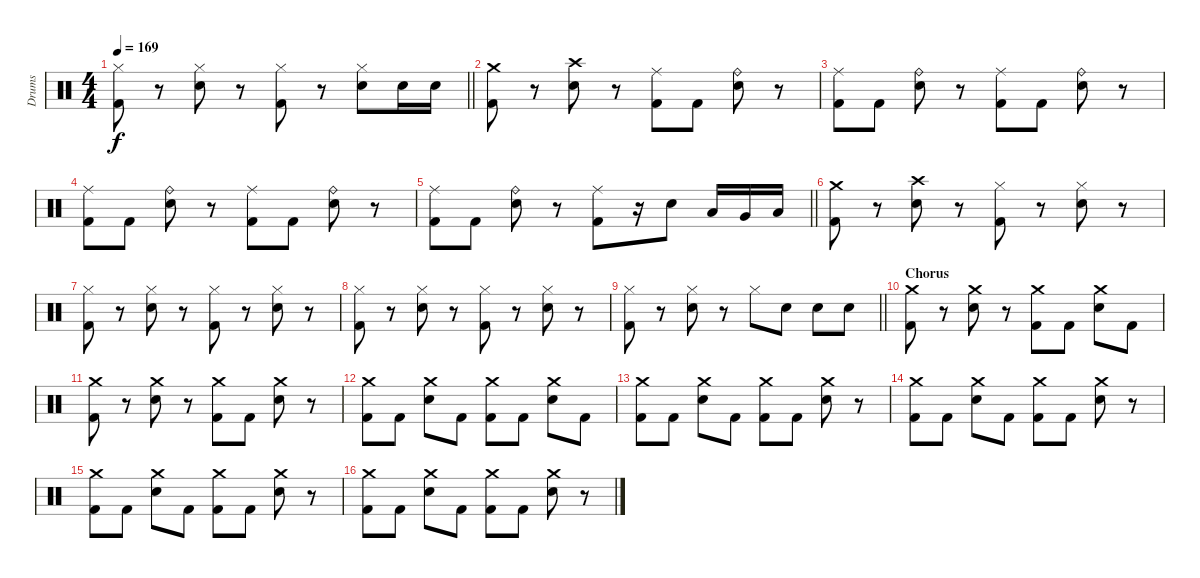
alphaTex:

\track ("Drums" "Drums") {instrument percussion}
\staff {score}
\articulation defaults
\ts (4 4)
\tempo 169
\clef neutral
\barLineRight lightlight
\ks c
("Hi-Hat (closed)" "Kick (hit) 2").8{dy f} r.8 ("Hi-Hat (closed)" "Electric Snare (hit)").8 r.8 ("Hi-Hat (closed)" "Kick (hit) 2").8 r.8 ("Hi-Hat (closed)" "Electric Snare (hit)").8 "Electric Snare (hit)".16 "Electric Snare (hit)".16 |
("Crash medium (hit)" "Kick (hit) 2").8 r.8 ("Crash high (hit)" "Electric Snare (hit)").8 r.8 ("Ride (middle)" "Kick (hit) 2").8 "Kick (hit) 2".8 ("Ride (bell)" "Electric Snare (hit)").8 r.8 |
("Ride (middle)" "Kick (hit) 2").8 "Kick (hit) 2".8 ("Ride (bell)" "Electric Snare (hit)").8 r.8 ("Ride (middle)" "Kick (hit) 2").8 "Kick (hit) 2".8 ("Ride (bell)" "Electric Snare (hit)").8 r.8 |
("Ride (middle)" "Kick (hit) 2").8 "Kick (hit) 2".8 ("Ride (bell)" "Electric Snare (hit)").8 r.8 ("Ride (middle)" "Kick (hit) 2").8 "Kick (hit) 2".8 ("Ride (bell)" "Electric Snare (hit)").8 r.8 |
\barLineRight lightlight
("Ride (middle)" "Kick (hit) 2").8 "Kick (hit) 2".8 ("Ride (bell)" "Electric Snare (hit)").8 r.8 ("Ride (middle)" "Kick (hit) 2").8 r.16 "Electric Snare (hit)".8 "Low Tom (hit)".16 "Very Low Tom (hit)".16 "Low Floor Tom (hit)".16 |
("Crash medium (hit)" "Kick (hit) 2").8 r.8 ("Crash high (hit)" "Electric Snare (hit)").8 r.8 ("Hi-Hat (closed)" "Kick (hit) 2").8 r.8 ("Hi-Hat (closed)" "Electric Snare (hit)").8 r.8 |
("Hi-Hat (closed)" "Kick (hit) 2").8 r.8 ("Hi-Hat (closed)" "Electric Snare (hit)").8 r.8 ("Hi-Hat (closed)" "Kick (hit) 2").8 r.8 ("Hi-Hat (closed)" "Electric Snare (hit)").8 r.8 |
("Hi-Hat (closed)" "Kick (hit) 2").8 r.8 ("Hi-Hat (closed)" "Electric Snare (hit)").8 r.8 ("Hi-Hat (closed)" "Kick (hit) 2").8 r.8 ("Hi-Hat (closed)" "Electric Snare (hit)").8 r.8 |
\barLineRight lightlight
("Hi-Hat (closed)" "Kick (hit) 2").8 r.8 ("Hi-Hat (closed)" "Electric Snare (hit)").8 r.8 "Hi-Hat (closed)".8 "Electric Snare (hit)".8 "Electric Snare (hit)".8 "Electric Snare (hit)".8 |
\section ("" "Chorus")
("Crash medium (hit)" "Kick (hit) 2").8 r.8 ("Crash medium (hit)" "Electric Snare (hit)").8 r.8 ("Crash medium (hit)" "Kick (hit) 2").8 "Kick (hit) 2".8 ("Crash medium (hit)" "Electric Snare (hit)").8 "Kick (hit) 2".8 |
("Crash medium (hit)" "Kick (hit) 2").8 r.8 ("Crash medium (hit)" "Electric Snare (hit)").8 r.8 ("Crash medium (hit)" "Kick (hit) 2").8 "Kick (hit) 2".8 ("Crash medium (hit)" "Electric Snare (hit)").8 r.8 |
("Crash medium (hit)" "Kick (hit) 2").8 "Kick (hit) 2".8 ("Crash medium (hit)" "Electric Snare (hit)").8 "Kick (hit) 2".8 ("Crash medium (hit)" "Kick (hit) 2").8 "Kick (hit) 2".8 ("Crash medium (hit)" "Electric Snare (hit)").8 "Kick (hit) 2".8 |
("Crash medium (hit)" "Kick (hit) 2").8 "Kick (hit) 2".8 ("Crash medium (hit)" "Electric Snare (hit)").8 "Kick (hit) 2".8 ("Crash medium (hit)" "Kick (hit) 2").8 "Kick (hit) 2".8 ("Crash medium (hit)" "Electric Snare (hit)").8 r.8 |
("Crash medium (hit)" "Kick (hit) 2").8 "Kick (hit) 2".8 ("Crash medium (hit)" "Electric Snare (hit)").8 "Kick (hit) 2".8 ("Crash medium (hit)" "Kick (hit) 2").8 "Kick (hit) 2".8 ("Crash medium (hit)" "Electric Snare (hit)").8 r.8 |
("Crash medium (hit)" "Kick (hit) 2").8 "Kick (hit) 2".8 ("Crash medium (hit)" "Electric Snare (hit)").8 "Kick (hit) 2".8 ("Crash medium (hit)" "Kick (hit) 2").8 "Kick (hit) 2".8 ("Crash medium (hit)" "Electric Snare (hit)").8 r.8 |
("Crash medium (hit)" "Kick (hit) 2").8 "Kick (hit) 2".8 ("Crash medium (hit)" "Electric Snare (hit)").8 "Kick (hit) 2".8 ("Crash medium (hit)" "Kick (hit) 2").8 "Kick (hit) 2".8 ("Crash medium (hit)" "Electric Snare (hit)").8 r.8
